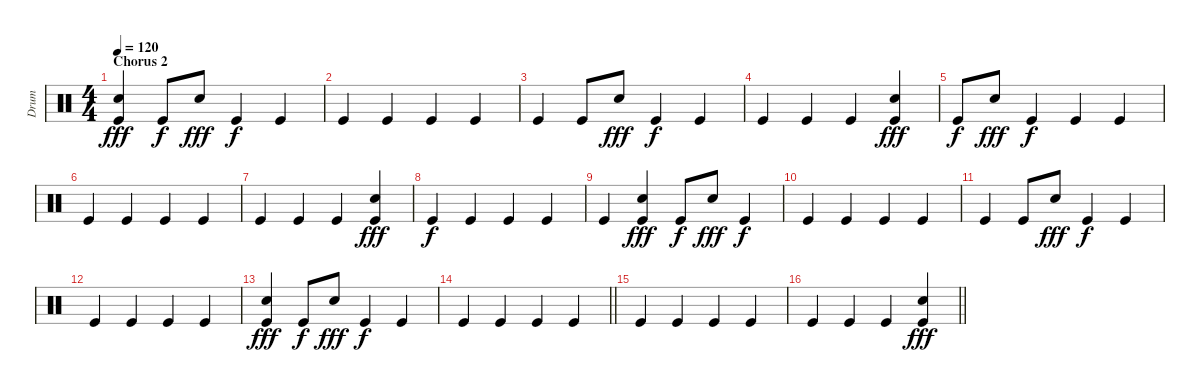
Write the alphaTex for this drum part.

\track ("Drum" "Drum") {instrument percussion}
\staff {score}
\articulation defaults
\ts (4 4)
\section ("" "Chorus 2")
\tempo 120
\clef neutral
\ks c
("Electric Snare (hit)" "Kick (hit)").4{dy fff} "Kick (hit)".8{dy f} "Electric Snare (hit)".8{dy fff} "Kick (hit)".4{dy f} "Kick (hit)".4 |
"Kick (hit)".4 "Kick (hit)".4 "Kick (hit)".4 "Kick (hit)".4 |
"Kick (hit)".4 "Kick (hit)".8 "Electric Snare (hit)".8{dy fff} "Kick (hit)".4{dy f} "Kick (hit)".4 |
"Kick (hit)".4 "Kick (hit)".4 "Kick (hit)".4 ("Electric Snare (hit)" "Kick (hit)").4{dy fff} |
"Kick (hit)".8{dy f} "Electric Snare (hit)".8{dy fff} "Kick (hit)".4{dy f} "Kick (hit)".4 "Kick (hit)".4 |
"Kick (hit)".4 "Kick (hit)".4 "Kick (hit)".4 "Kick (hit)".4 |
"Kick (hit)".4 "Kick (hit)".4 "Kick (hit)".4 ("Electric Snare (hit)" "Kick (hit)").4{dy fff} |
"Kick (hit)".4{dy f} "Kick (hit)".4 "Kick (hit)".4 "Kick (hit)".4 |
"Kick (hit)".4 ("Electric Snare (hit)" "Kick (hit)").4{dy fff} "Kick (hit)".8{dy f} "Electric Snare (hit)".8{dy fff} "Kick (hit)".4{dy f} |
"Kick (hit)".4 "Kick (hit)".4 "Kick (hit)".4 "Kick (hit)".4 |
"Kick (hit)".4 "Kick (hit)".8 "Electric Snare (hit)".8{dy fff} "Kick (hit)".4{dy f} "Kick (hit)".4 |
"Kick (hit)".4 "Kick (hit)".4 "Kick (hit)".4 "Kick (hit)".4 |
("Electric Snare (hit)" "Kick (hit)").4{dy fff} "Kick (hit)".8{dy f} "Electric Snare (hit)".8{dy fff} "Kick (hit)".4{dy f} "Kick (hit)".4 |
\barLineRight lightlight "Kick (hit)".4 "Kick (hit)".4 "Kick (hit)".4 "Kick (hit)".4
|
\section ("" "")
"Kick (hit)".4 "Kick (hit)".4 "Kick (hit)".4 "Kick (hit)".4 |
\barLineRight lightlight "Kick (hit)".4 "Kick (hit)".4 "Kick (hit)".4
("Kick (hit)" "Electric Snare (hit)").4{dy fff}
